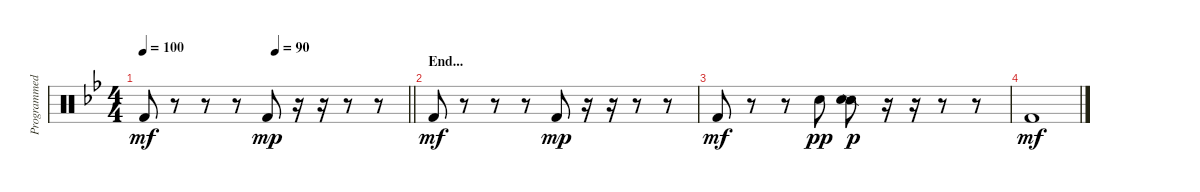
\track ("Programmed Drums" "Programmed") {instrument percussion}
\staff {score}
\articulation defaults
\ts (4 4)
\tempo 100
\tempo (90 0.5)
\clef neutral
\barLineRight lightlight
\ks bb "Kick (hit) 2".8{dy mf}
r.8 r.8 r.8 "Kick (hit) 2".8{dy mp} r.16 r.16 r.8 r.8 |
\section ("" "End...")
"Kick (hit) 2".8{dy mf} r.8 r.8 r.8 "Kick (hit) 2".8{dy mp} r.16 r.16 r.8 r.8 |
"Kick (hit) 2".8{dy mf} r.8 r.8 "Snare (hit) 2".8{dy pp} ("Snare (side stick) 2" "Snare (hit) 2").8{dy p} r.16 r.16 r.8 r.8 |
"Kick (hit) 2".1{dy mf}
